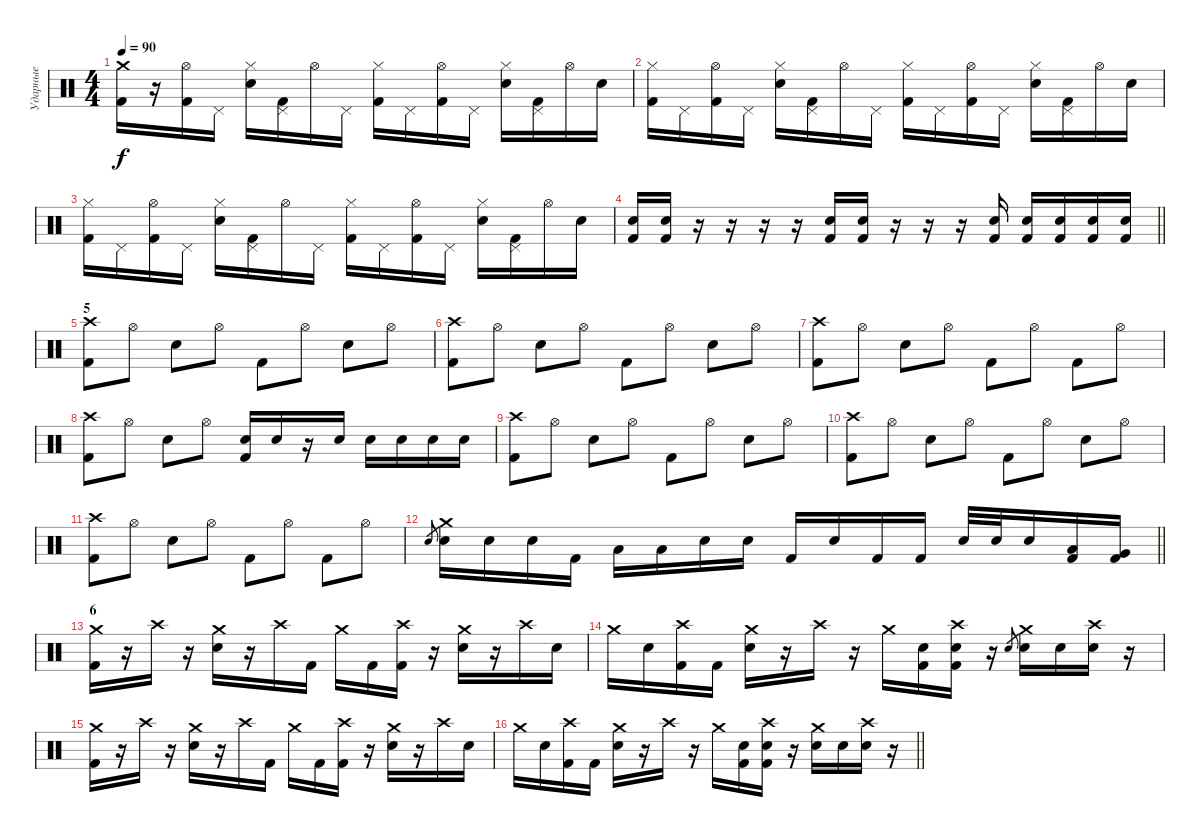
\track ("Ударные" "Ударные") {instrument percussion}
\staff {score}
\articulation defaults
\ts (4 4)
\tempo 90
\clef neutral
\ks c
("Crash medium (hit)" "Kick (hit) 2").16{dy f} r.16 ("Hi-Hat (open)" "Kick (hit) 2").16 "Pedal Hi-Hat (hit)".16 ("Hi-Hat (closed)" "Electric Snare (hit)").16 ("Pedal Hi-Hat (hit)" "Kick (hit) 2").16 "Hi-Hat (open)".16 "Pedal Hi-Hat (hit)".16 ("Hi-Hat (closed)" "Kick (hit) 2").16 "Pedal Hi-Hat (hit)".16 ("Hi-Hat (open)" "Kick (hit) 2").16 "Pedal Hi-Hat (hit)".16 ("Hi-Hat (closed)" "Electric Snare (hit)").16 ("Pedal Hi-Hat (hit)" "Kick (hit) 2").16 "Hi-Hat (open)".16 "Electric Snare (hit)".16 |
("Hi-Hat (closed)" "Kick (hit) 2").16 "Pedal Hi-Hat (hit)".16 ("Hi-Hat (open)" "Kick (hit) 2").16 "Pedal Hi-Hat (hit)".16 ("Hi-Hat (closed)" "Electric Snare (hit)").16 ("Pedal Hi-Hat (hit)" "Kick (hit) 2").16 "Hi-Hat (open)".16 "Pedal Hi-Hat (hit)".16 ("Hi-Hat (closed)" "Kick (hit) 2").16 "Pedal Hi-Hat (hit)".16 ("Hi-Hat (open)" "Kick (hit) 2").16 "Pedal Hi-Hat (hit)".16 ("Hi-Hat (closed)" "Electric Snare (hit)").16 ("Pedal Hi-Hat (hit)" "Kick (hit) 2").16 "Hi-Hat (open)".16 "Electric Snare (hit)".16 |
("Hi-Hat (closed)" "Kick (hit) 2").16 "Pedal Hi-Hat (hit)".16 ("Hi-Hat (open)" "Kick (hit) 2").16 "Pedal Hi-Hat (hit)".16 ("Hi-Hat (closed)" "Electric Snare (hit)").16 ("Pedal Hi-Hat (hit)" "Kick (hit) 2").16 "Hi-Hat (open)".16 "Pedal Hi-Hat (hit)".16 ("Hi-Hat (closed)" "Kick (hit) 2").16 "Pedal Hi-Hat (hit)".16 ("Hi-Hat (open)" "Kick (hit) 2").16 "Pedal Hi-Hat (hit)".16 ("Hi-Hat (closed)" "Electric Snare (hit)").16 ("Pedal Hi-Hat (hit)" "Kick (hit) 2").16 "Hi-Hat (open)".16 "Electric Snare (hit)".16 |
\barLineRight lightlight
("Kick (hit) 2" "Electric Snare (hit)").16 ("Kick (hit) 2" "Electric Snare (hit)").16 r.16 r.16 r.16 r.16 ("Kick (hit) 2" "Electric Snare (hit)").16 ("Kick (hit) 2" "Electric Snare (hit)").16 r.16 r.16 r.16 ("Kick (hit) 2" "Electric Snare (hit)").16 ("Kick (hit) 2" "Electric Snare (hit)").16 ("Kick (hit) 2" "Electric Snare (hit)").16 ("Kick (hit) 2" "Electric Snare (hit)").16 ("Kick (hit) 2" "Electric Snare (hit)").16 |
\section ("" "5")
("Crash high (hit)" "Kick (hit) 2").8 "Hi-Hat (open)".8 "Snare (hit) 2".8 "Hi-Hat (open)".8 "Kick (hit) 2".8 "Hi-Hat (open)".8 "Snare (hit) 2".8 "Hi-Hat (open)".8 |
("Crash high (hit)" "Kick (hit) 2").8 "Hi-Hat (open)".8 "Snare (hit) 2".8 "Hi-Hat (open)".8 "Kick (hit) 2".8 "Hi-Hat (open)".8 "Snare (hit) 2".8 "Hi-Hat (open)".8 |
("Crash high (hit)" "Kick (hit) 2").8 "Hi-Hat (open)".8 "Snare (hit) 2".8 "Hi-Hat (open)".8 "Kick (hit) 2".8 "Hi-Hat (open)".8 "Kick (hit) 2".8 "Hi-Hat (open)".8 |
("Crash high (hit)" "Kick (hit) 2").8 "Hi-Hat (open)".8 "Snare (hit) 2".8 "Hi-Hat (open)".8 ("Snare (hit) 2" "Kick (hit) 2").16 "Snare (hit) 2".16 r.16 "Snare (hit) 2".16 "Snare (hit) 2".16 "Snare (hit) 2".16 "Snare (hit) 2".16 "Snare (hit) 2".16 |
("Crash high (hit)" "Kick (hit) 2").8 "Hi-Hat (open)".8 "Snare (hit) 2".8 "Hi-Hat (open)".8 "Kick (hit) 2".8 "Hi-Hat (open)".8 "Snare (hit) 2".8 "Hi-Hat (open)".8 |
("Crash high (hit)" "Kick (hit) 2").8 "Hi-Hat (open)".8 "Snare (hit) 2".8 "Hi-Hat (open)".8 "Kick (hit) 2".8 "Hi-Hat (open)".8 "Snare (hit) 2".8 "Hi-Hat (open)".8 |
("Crash high (hit)" "Kick (hit) 2").8 "Hi-Hat (open)".8 "Snare (hit) 2".8 "Hi-Hat (open)".8 "Kick (hit) 2".8 "Hi-Hat (open)".8 "Kick (hit) 2".8 "Hi-Hat (open)".8 |
\barLineRight lightlight "Electric Snare (hit)".8{gr}
("Crash medium (hit)" "Electric Snare (hit)").16 "Electric Snare (hit)".16 "Electric Snare (hit)".16 "Kick (hit) 2".16 "Low Tom (hit)".16 "Low Tom (hit)".16 "Electric Snare (hit)".16 "Electric Snare (hit)".16 "Kick (hit) 2".16 "Electric Snare (hit)".16 "Kick (hit) 2".16 "Kick (hit) 2".16 "Electric Snare (hit)".32 "Electric Snare (hit)".32 "Electric Snare (hit)".16 ("Low Tom (hit)" "Kick (hit) 2").16 ("Very Low Tom (hit)" "Kick (hit) 2").16 |
\section ("" "6")
("Crash medium (hit)" "Kick (hit) 2").16 r.16 "Crash high (hit)".16 r.16 ("Crash medium (hit)" "Snare (hit) 2").16 r.16 "Crash high (hit)".16 "Kick (hit) 2".16 "Crash medium (hit)".16 "Kick (hit) 2".16 ("Crash high (hit)" "Kick (hit) 2").16 r.16 ("Crash medium (hit)" "Snare (hit) 2").16 r.16 "Crash high (hit)".16 "Snare (hit) 2".16 |
"Crash medium (hit)".16 "Snare (hit) 2".16 ("Crash high (hit)" "Kick (hit) 2").16 "Kick (hit) 2".16 ("Crash medium (hit)" "Snare (hit) 2").16 r.16 "Crash high (hit)".16 r.16 "Crash medium (hit)".16 ("Snare (hit) 2" "Kick (hit) 2").16 ("Crash high (hit)" "Snare (hit) 2" "Kick (hit) 2").16 r.16 "Snare (hit) 2".8{gr} ("Crash medium (hit)" "Snare (hit) 2").16 "Snare (hit) 2".16 ("Crash high (hit)" "Snare (hit) 2").16 r.16 |
("Crash medium (hit)" "Kick (hit) 2").16 r.16 "Crash high (hit)".16 r.16 ("Crash medium (hit)" "Snare (hit) 2").16 r.16 "Crash high (hit)".16 "Kick (hit) 2".16 "Crash medium (hit)".16 "Kick (hit) 2".16 ("Crash high (hit)" "Kick (hit) 2").16 r.16 ("Crash medium (hit)" "Snare (hit) 2").16 r.16 "Crash high (hit)".16 "Snare (hit) 2".16 |
\barLineRight lightlight "Crash medium (hit)".16 "Snare (hit) 2".16
("Crash high (hit)" "Kick (hit) 2").16 "Kick (hit) 2".16 ("Crash medium (hit)" "Snare (hit) 2").16 r.16 "Crash high (hit)".16 r.16 "Crash medium (hit)".16 ("Snare (hit) 2" "Kick (hit) 2").16 ("Crash high (hit)" "Snare (hit) 2" "Kick (hit) 2").16 r.16 ("Crash medium (hit)" "Snare (hit) 2").16 "Snare (hit) 2".16 ("Crash high (hit)" "Snare (hit) 2").16 r.16
